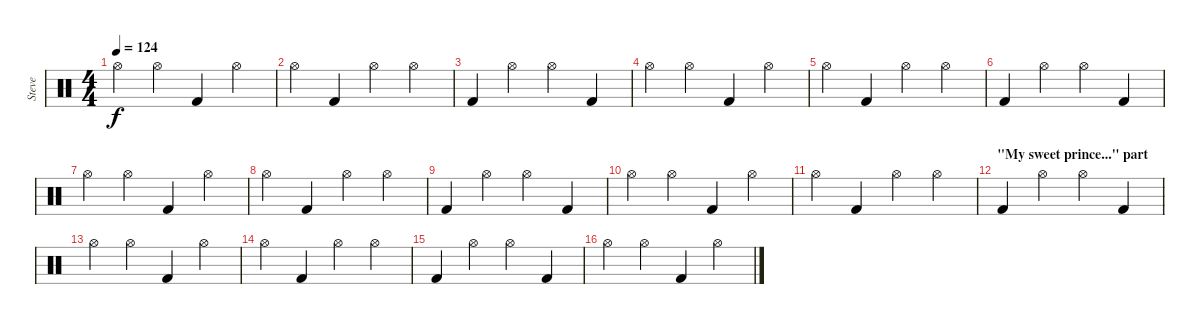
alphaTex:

\track ("Steve" "Steve") {instrument percussion}
\staff {score}
\articulation defaults
\ts (4 4)
\tempo 124
\clef neutral
\ks c "Hi-Hat (open)".4{dy f} "Hi-Hat (open)".4 "Kick (hit) 2".4 "Hi-Hat (open)".4
|
"Hi-Hat (open)".4 "Kick (hit) 2".4 "Hi-Hat (open)".4 "Hi-Hat (open)".4 |
"Kick (hit) 2".4 "Hi-Hat (open)".4 "Hi-Hat (open)".4 "Kick (hit) 2".4 |
"Hi-Hat (open)".4 "Hi-Hat (open)".4 "Kick (hit) 2".4 "Hi-Hat (open)".4 |
"Hi-Hat (open)".4 "Kick (hit) 2".4 "Hi-Hat (open)".4 "Hi-Hat (open)".4 |
"Kick (hit) 2".4 "Hi-Hat (open)".4 "Hi-Hat (open)".4 "Kick (hit) 2".4 |
"Hi-Hat (open)".4 "Hi-Hat (open)".4 "Kick (hit) 2".4 "Hi-Hat (open)".4 |
"Hi-Hat (open)".4 "Kick (hit) 2".4 "Hi-Hat (open)".4 "Hi-Hat (open)".4 |
"Kick (hit) 2".4 "Hi-Hat (open)".4 "Hi-Hat (open)".4 "Kick (hit) 2".4 |
"Hi-Hat (open)".4 "Hi-Hat (open)".4 "Kick (hit) 2".4 "Hi-Hat (open)".4 |
"Hi-Hat (open)".4 "Kick (hit) 2".4 "Hi-Hat (open)".4 "Hi-Hat (open)".4 |
\section ("" "\"My sweet prince...\" part")
"Kick (hit) 2".4 "Hi-Hat (open)".4 "Hi-Hat (open)".4 "Kick (hit) 2".4 |
"Hi-Hat (open)".4 "Hi-Hat (open)".4 "Kick (hit) 2".4 "Hi-Hat (open)".4 |
"Hi-Hat (open)".4 "Kick (hit) 2".4 "Hi-Hat (open)".4 "Hi-Hat (open)".4 |
"Kick (hit) 2".4 "Hi-Hat (open)".4 "Hi-Hat (open)".4 "Kick (hit) 2".4 |
"Hi-Hat (open)".4 "Hi-Hat (open)".4 "Kick (hit) 2".4 "Hi-Hat (open)".4
